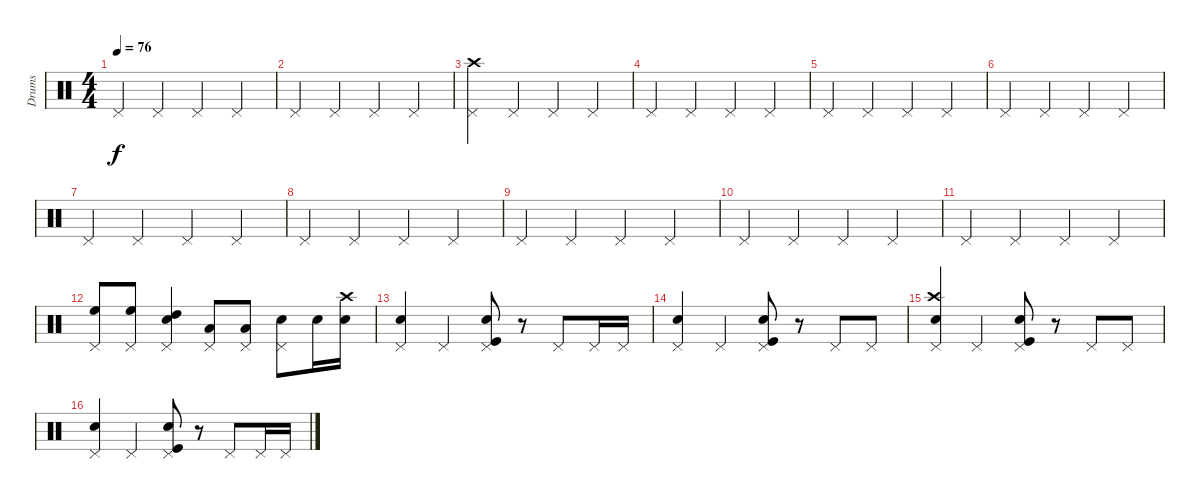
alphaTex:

\track ("Drums" "Drums") {instrument percussion}
\staff {score}
\articulation defaults
\ts (4 4)
\tempo 76
\clef neutral
\ks c "Pedal Hi-Hat (hit)".4{dy f} "Pedal Hi-Hat (hit)".4 "Pedal Hi-Hat (hit)".4 "Pedal Hi-Hat (hit)".4
|
"Pedal Hi-Hat (hit)".4 "Pedal Hi-Hat (hit)".4 "Pedal Hi-Hat (hit)".4 "Pedal Hi-Hat (hit)".4 |
("Pedal Hi-Hat (hit)" "Crash high (hit)").4 "Pedal Hi-Hat (hit)".4 "Pedal Hi-Hat (hit)".4 "Pedal Hi-Hat (hit)".4 |
"Pedal Hi-Hat (hit)".4 "Pedal Hi-Hat (hit)".4 "Pedal Hi-Hat (hit)".4 "Pedal Hi-Hat (hit)".4 |
"Pedal Hi-Hat (hit)".4 "Pedal Hi-Hat (hit)".4 "Pedal Hi-Hat (hit)".4 "Pedal Hi-Hat (hit)".4 |
"Pedal Hi-Hat (hit)".4 "Pedal Hi-Hat (hit)".4 "Pedal Hi-Hat (hit)".4 "Pedal Hi-Hat (hit)".4 |
"Pedal Hi-Hat (hit)".4 "Pedal Hi-Hat (hit)".4 "Pedal Hi-Hat (hit)".4 "Pedal Hi-Hat (hit)".4 |
"Pedal Hi-Hat (hit)".4 "Pedal Hi-Hat (hit)".4 "Pedal Hi-Hat (hit)".4 "Pedal Hi-Hat (hit)".4 |
"Pedal Hi-Hat (hit)".4 "Pedal Hi-Hat (hit)".4 "Pedal Hi-Hat (hit)".4 "Pedal Hi-Hat (hit)".4 |
"Pedal Hi-Hat (hit)".4 "Pedal Hi-Hat (hit)".4 "Pedal Hi-Hat (hit)".4 "Pedal Hi-Hat (hit)".4 |
"Pedal Hi-Hat (hit)".4 "Pedal Hi-Hat (hit)".4 "Pedal Hi-Hat (hit)".4 "Pedal Hi-Hat (hit)".4 |
("Pedal Hi-Hat (hit)" "High Floor Tom (hit)").8 ("Pedal Hi-Hat (hit)" "High Floor Tom (hit)").8 ("Pedal Hi-Hat (hit)" "High Tom (hit)" "Snare (hit) 2").4 ("Pedal Hi-Hat (hit)" "Low Tom (hit)").8 ("Pedal Hi-Hat (hit)" "Low Tom (hit)").8 ("Pedal Hi-Hat (hit)" "Snare (hit) 2").8 "Snare (hit) 2".16 ("Snare (hit) 2" "Crash high (hit)").16 |
("Pedal Hi-Hat (hit)" "Snare (hit) 2").4 "Pedal Hi-Hat (hit)".4 ("Pedal Hi-Hat (hit)" "Snare (hit) 2" "Kick (hit)").8 r.8 "Pedal Hi-Hat (hit)".8 "Pedal Hi-Hat (hit)".16 "Pedal Hi-Hat (hit)".16 |
("Pedal Hi-Hat (hit)" "Snare (hit) 2").4 "Pedal Hi-Hat (hit)".4 ("Pedal Hi-Hat (hit)" "Snare (hit) 2" "Kick (hit)").8 r.8 "Pedal Hi-Hat (hit)".8 "Pedal Hi-Hat (hit)".8 |
("Pedal Hi-Hat (hit)" "Snare (hit) 2" "Crash high (hit)").4 "Pedal Hi-Hat (hit)".4 ("Pedal Hi-Hat (hit)" "Snare (hit) 2" "Kick (hit)").8 r.8 "Pedal Hi-Hat (hit)".8 "Pedal Hi-Hat (hit)".8 |
("Pedal Hi-Hat (hit)" "Snare (hit) 2").4 "Pedal Hi-Hat (hit)".4 ("Pedal Hi-Hat (hit)" "Snare (hit) 2" "Kick (hit)").8 r.8 "Pedal Hi-Hat (hit)".8 "Pedal Hi-Hat (hit)".16 "Pedal Hi-Hat (hit)".16
